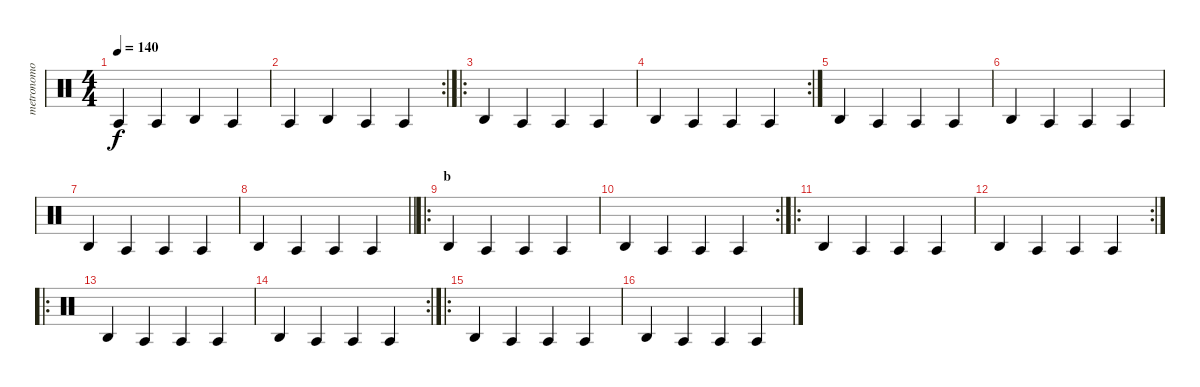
\track ("metronomo" "metronomo") {instrument percussion}
\staff {score}
\articulation defaults
\ts (4 4)
\tempo 140
\clef neutral
\ks c "Agogo tow (hit)".4{dy f} "Agogo tow (hit)".4 "Agogo high (hit)".4 "Agogo tow (hit)".4
|
\rc 2 "Agogo tow (hit)".4 "Agogo high (hit)".4 "Agogo tow (hit)".4 "Agogo tow (hit)".4
|
\ro "Agogo high (hit)".4 "Agogo tow (hit)".4 "Agogo tow (hit)".4 "Agogo tow (hit)".4
|
\rc 2 "Agogo high (hit)".4 "Agogo tow (hit)".4 "Agogo tow (hit)".4 "Agogo tow (hit)".4
|
"Agogo high (hit)".4 "Agogo tow (hit)".4 "Agogo tow (hit)".4 "Agogo tow (hit)".4 |
"Agogo high (hit)".4 "Agogo tow (hit)".4 "Agogo tow (hit)".4 "Agogo tow (hit)".4 |
"Agogo high (hit)".4 "Agogo tow (hit)".4 "Agogo tow (hit)".4 "Agogo tow (hit)".4 |
\barLineRight lightlight "Agogo high (hit)".4 "Agogo tow (hit)".4 "Agogo tow (hit)".4 "Agogo tow (hit)".4
|
\ro
\section ("" "b")
"Agogo high (hit)".4 "Agogo tow (hit)".4 "Agogo tow (hit)".4 "Agogo tow (hit)".4 |
\rc 2 "Agogo high (hit)".4 "Agogo tow (hit)".4 "Agogo tow (hit)".4 "Agogo tow (hit)".4
|
\ro "Agogo high (hit)".4 "Agogo tow (hit)".4 "Agogo tow (hit)".4 "Agogo tow (hit)".4
|
\rc 2 "Agogo high (hit)".4 "Agogo tow (hit)".4 "Agogo tow (hit)".4 "Agogo tow (hit)".4
|
\ro "Agogo high (hit)".4 "Agogo tow (hit)".4 "Agogo tow (hit)".4 "Agogo tow (hit)".4
|
\rc 2 "Agogo high (hit)".4 "Agogo tow (hit)".4 "Agogo tow (hit)".4 "Agogo tow (hit)".4
|
\ro "Agogo high (hit)".4 "Agogo tow (hit)".4 "Agogo tow (hit)".4 "Agogo tow (hit)".4
|
"Agogo high (hit)".4 "Agogo tow (hit)".4 "Agogo tow (hit)".4 "Agogo tow (hit)".4
